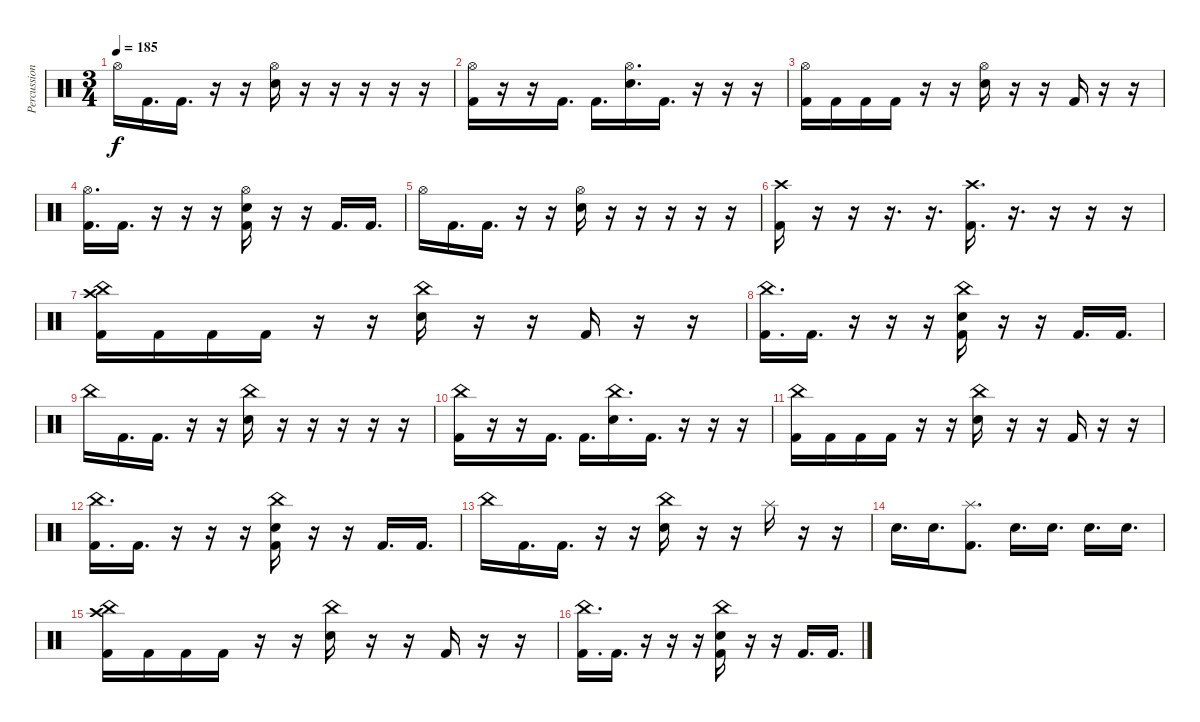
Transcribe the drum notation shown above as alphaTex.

\track ("Percussion" "Percussion") {instrument percussion}
\staff {score}
\articulation defaults
\ts (3 4)
\tempo 185
\clef neutral
\ks c "Hi-Hat (open)".16{dy f} "Kick (hit) 2".16{d} "Kick (hit) 2".16{d}
r.16 r.16 ("Hi-Hat (open)" "Electric Snare (hit)").16 r.16 r.16 r.16 r.16 r.16 |
("Hi-Hat (open)" "Kick (hit) 2").16 r.16 r.16 "Kick (hit) 2".16{d} "Kick (hit) 2".16{d} ("Hi-Hat (open)" "Electric Snare (hit)").16{d} "Kick (hit) 2".16{d} r.16 r.16 r.16 |
("Hi-Hat (open)" "Kick (hit) 2").16 "Kick (hit) 2".16 "Kick (hit) 2".16 "Kick (hit) 2".16 r.16 r.16 ("Hi-Hat (open)" "Electric Snare (hit)").16 r.16 r.16 "Kick (hit) 2".16 r.16 r.16 |
("Hi-Hat (open)" "Kick (hit) 2").16{d} "Kick (hit) 2".16{d} r.16 r.16 r.16 ("Hi-Hat (open)" "Electric Snare (hit)" "Kick (hit) 2").16 r.16 r.16 "Kick (hit) 2".16{d} "Kick (hit) 2".16{d} |
"Hi-Hat (open)".16 "Kick (hit) 2".16{d} "Kick (hit) 2".16{d} r.16 r.16 ("Hi-Hat (open)" "Electric Snare (hit)").16 r.16 r.16 r.16 r.16 r.16 |
("Crash high (hit)" "Kick (hit) 2").16 r.16 r.16 r.16{d} r.16{d} ("Crash high (hit)" "Kick (hit) 2").16{d} r.16{d} r.16 r.16 r.16 |
("Crash high (hit)" "China (hit)" "Kick (hit) 2").16 "Kick (hit) 2".16 "Kick (hit) 2".16 "Kick (hit) 2".16 r.16 r.16 ("China (hit)" "Electric Snare (hit)").16 r.16 r.16 "Kick (hit) 2".16 r.16 r.16 |
("China (hit)" "Kick (hit) 2").16{d} "Kick (hit) 2".16{d} r.16 r.16 r.16 ("China (hit)" "Electric Snare (hit)" "Kick (hit) 2").16 r.16 r.16 "Kick (hit) 2".16{d} "Kick (hit) 2".16{d} |
"China (hit)".16 "Kick (hit) 2".16{d} "Kick (hit) 2".16{d} r.16 r.16 ("China (hit)" "Electric Snare (hit)").16 r.16 r.16 r.16 r.16 r.16 |
("China (hit)" "Kick (hit) 2").16 r.16 r.16 "Kick (hit) 2".16{d} "Kick (hit) 2".16{d} ("China (hit)" "Electric Snare (hit)").16{d} "Kick (hit) 2".16{d} r.16 r.16 r.16 |
("China (hit)" "Kick (hit) 2").16 "Kick (hit) 2".16 "Kick (hit) 2".16 "Kick (hit) 2".16 r.16 r.16 ("China (hit)" "Electric Snare (hit)").16 r.16 r.16 "Kick (hit) 2".16 r.16 r.16 |
("China (hit)" "Kick (hit) 2").16{d} "Kick (hit) 2".16{d} r.16 r.16 r.16 ("China (hit)" "Electric Snare (hit)" "Kick (hit) 2").16 r.16 r.16 "Kick (hit) 2".16{d} "Kick (hit) 2".16{d} |
"China (hit)".16 "Kick (hit) 2".16{d} "Kick (hit) 2".16{d} r.16 r.16 ("China (hit)" "Electric Snare (hit)").16 r.16 r.16 "Splash (hit)".16 r.16 r.16 |
"Electric Snare (hit)".16{d} "Electric Snare (hit)".16{d} ("Splash (hit)" "Kick (hit) 2").8{d} "Electric Snare (hit)".16{d} "Electric Snare (hit)".16{d} "Electric Snare (hit)".16{d} "Electric Snare (hit)".16{d} |
("Crash high (hit)" "China (hit)" "Kick (hit) 2").16 "Kick (hit) 2".16 "Kick (hit) 2".16 "Kick (hit) 2".16 r.16 r.16 ("China (hit)" "Electric Snare (hit)").16 r.16 r.16 "Kick (hit) 2".16 r.16 r.16 |
("China (hit)" "Kick (hit) 2").16{d} "Kick (hit) 2".16{d} r.16 r.16 r.16 ("China (hit)" "Electric Snare (hit)" "Kick (hit) 2").16 r.16 r.16 "Kick (hit) 2".16{d} "Kick (hit) 2".16{d}
